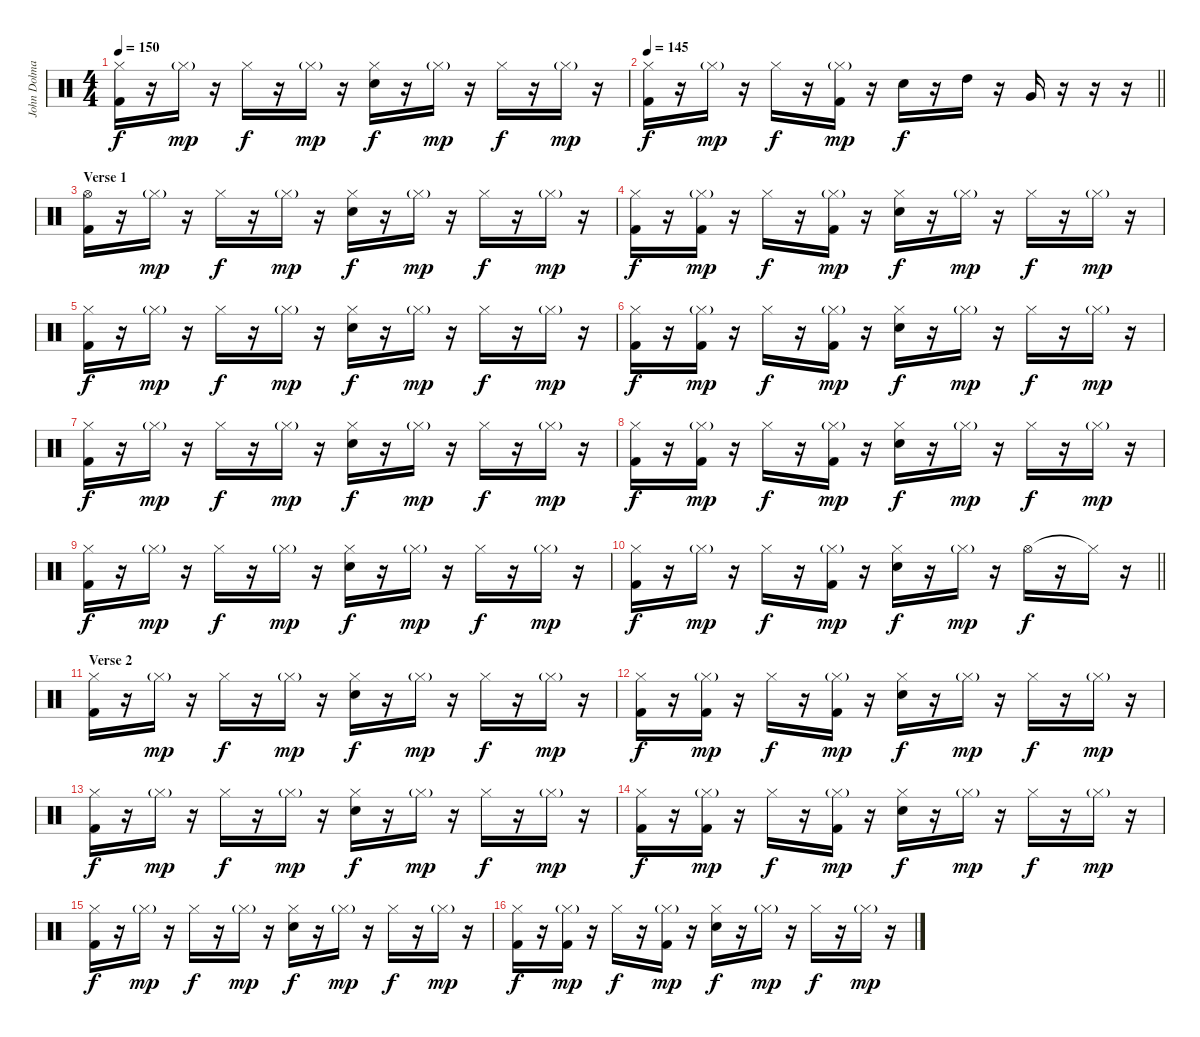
\track ("John Dolmayan" "John Dolma") {instrument percussion}
\staff {score}
\articulation defaults
\ts (4 4)
\tempo 150
\clef neutral
\ks c
("Hi-Hat (closed)" "Kick (hit) 2").16{dy f} r.16 "Hi-Hat (closed)"{g}.16{dy mp} r.16 "Hi-Hat (closed)".16{dy f} r.16 "Hi-Hat (closed)"{g}.16{dy mp} r.16 ("Hi-Hat (closed)" "Electric Snare (hit)").16{dy f} r.16 "Hi-Hat (closed)"{g}.16{dy mp} r.16 "Hi-Hat (closed)".16{dy f} r.16 "Hi-Hat (closed)"{g}.16{dy mp} r.16 |
\tempo 145
\barLineRight lightlight
("Hi-Hat (closed)" "Kick (hit) 2").16{dy f} r.16 "Hi-Hat (closed)"{g}.16{dy mp} r.16 "Hi-Hat (closed)".16{dy f} r.16 ("Hi-Hat (closed)"{g} "Kick (hit) 2").16{dy mp} r.16 "Electric Snare (hit)".16{dy f} r.16 "High Tom (hit)".16 r.16 "Very Low Tom (hit)".16 r.16 r.16 r.16 |
\section ("" "Verse 1")
("Hi-Hat (open)" "Kick (hit) 2").16 r.16 "Hi-Hat (closed)"{g}.16{dy mp} r.16 "Hi-Hat (closed)".16{dy f} r.16 "Hi-Hat (closed)"{g}.16{dy mp} r.16 ("Hi-Hat (closed)" "Electric Snare (hit)").16{dy f} r.16 "Hi-Hat (closed)"{g}.16{dy mp} r.16 "Hi-Hat (closed)".16{dy f} r.16 "Hi-Hat (closed)"{g}.16{dy mp} r.16 |
("Hi-Hat (closed)" "Kick (hit) 2").16{dy f} r.16 ("Hi-Hat (closed)"{g} "Kick (hit) 2").16{dy mp} r.16 "Hi-Hat (closed)".16{dy f} r.16 ("Hi-Hat (closed)"{g} "Kick (hit) 2").16{dy mp} r.16 ("Hi-Hat (closed)" "Electric Snare (hit)").16{dy f} r.16 "Hi-Hat (closed)"{g}.16{dy mp} r.16 "Hi-Hat (closed)".16{dy f} r.16 "Hi-Hat (closed)"{g}.16{dy mp} r.16 |
("Hi-Hat (closed)" "Kick (hit) 2").16{dy f} r.16 "Hi-Hat (closed)"{g}.16{dy mp} r.16 "Hi-Hat (closed)".16{dy f} r.16 "Hi-Hat (closed)"{g}.16{dy mp} r.16 ("Hi-Hat (closed)" "Electric Snare (hit)").16{dy f} r.16 "Hi-Hat (closed)"{g}.16{dy mp} r.16 "Hi-Hat (closed)".16{dy f} r.16 "Hi-Hat (closed)"{g}.16{dy mp} r.16 |
("Hi-Hat (closed)" "Kick (hit) 2").16{dy f} r.16 ("Hi-Hat (closed)"{g} "Kick (hit) 2").16{dy mp} r.16 "Hi-Hat (closed)".16{dy f} r.16 ("Hi-Hat (closed)"{g} "Kick (hit) 2").16{dy mp} r.16 ("Hi-Hat (closed)" "Electric Snare (hit)").16{dy f} r.16 "Hi-Hat (closed)"{g}.16{dy mp} r.16 "Hi-Hat (closed)".16{dy f} r.16 "Hi-Hat (closed)"{g}.16{dy mp} r.16 |
("Hi-Hat (closed)" "Kick (hit) 2").16{dy f} r.16 "Hi-Hat (closed)"{g}.16{dy mp} r.16 "Hi-Hat (closed)".16{dy f} r.16 "Hi-Hat (closed)"{g}.16{dy mp} r.16 ("Hi-Hat (closed)" "Electric Snare (hit)").16{dy f} r.16 "Hi-Hat (closed)"{g}.16{dy mp} r.16 "Hi-Hat (closed)".16{dy f} r.16 "Hi-Hat (closed)"{g}.16{dy mp} r.16 |
("Hi-Hat (closed)" "Kick (hit) 2").16{dy f} r.16 ("Hi-Hat (closed)"{g} "Kick (hit) 2").16{dy mp} r.16 "Hi-Hat (closed)".16{dy f} r.16 ("Hi-Hat (closed)"{g} "Kick (hit) 2").16{dy mp} r.16 ("Hi-Hat (closed)" "Electric Snare (hit)").16{dy f} r.16 "Hi-Hat (closed)"{g}.16{dy mp} r.16 "Hi-Hat (closed)".16{dy f} r.16 "Hi-Hat (closed)"{g}.16{dy mp} r.16 |
("Hi-Hat (closed)" "Kick (hit) 2").16{dy f} r.16 "Hi-Hat (closed)"{g}.16{dy mp} r.16 "Hi-Hat (closed)".16{dy f} r.16 "Hi-Hat (closed)"{g}.16{dy mp} r.16 ("Hi-Hat (closed)" "Electric Snare (hit)").16{dy f} r.16 "Hi-Hat (closed)"{g}.16{dy mp} r.16 "Hi-Hat (closed)".16{dy f} r.16 "Hi-Hat (closed)"{g}.16{dy mp} r.16 |
\barLineRight lightlight
("Hi-Hat (closed)" "Kick (hit) 2").16{dy f} r.16 "Hi-Hat (closed)"{g}.16{dy mp} r.16 "Hi-Hat (closed)".16{dy f} r.16 ("Hi-Hat (closed)"{g} "Kick (hit) 2").16{dy mp} r.16 ("Hi-Hat (closed)" "Electric Snare (hit)").16{dy f} r.16 "Hi-Hat (closed)"{g}.16{dy mp} r.16 "Hi-Hat (open)".16{dy f} r.16 "Hi-Hat (closed)"{t}.16 r.16 |
\section ("" "Verse 2")
("Hi-Hat (closed)" "Kick (hit) 2").16 r.16 "Hi-Hat (closed)"{g}.16{dy mp} r.16 "Hi-Hat (closed)".16{dy f} r.16 "Hi-Hat (closed)"{g}.16{dy mp} r.16 ("Hi-Hat (closed)" "Electric Snare (hit)").16{dy f} r.16 "Hi-Hat (closed)"{g}.16{dy mp} r.16 "Hi-Hat (closed)".16{dy f} r.16 "Hi-Hat (closed)"{g}.16{dy mp} r.16 |
("Hi-Hat (closed)" "Kick (hit) 2").16{dy f} r.16 ("Hi-Hat (closed)"{g} "Kick (hit) 2").16{dy mp} r.16 "Hi-Hat (closed)".16{dy f} r.16 ("Hi-Hat (closed)"{g} "Kick (hit) 2").16{dy mp} r.16 ("Hi-Hat (closed)" "Electric Snare (hit)").16{dy f} r.16 "Hi-Hat (closed)"{g}.16{dy mp} r.16 "Hi-Hat (closed)".16{dy f} r.16 "Hi-Hat (closed)"{g}.16{dy mp} r.16 |
("Hi-Hat (closed)" "Kick (hit) 2").16{dy f} r.16 "Hi-Hat (closed)"{g}.16{dy mp} r.16 "Hi-Hat (closed)".16{dy f} r.16 "Hi-Hat (closed)"{g}.16{dy mp} r.16 ("Hi-Hat (closed)" "Electric Snare (hit)").16{dy f} r.16 "Hi-Hat (closed)"{g}.16{dy mp} r.16 "Hi-Hat (closed)".16{dy f} r.16 "Hi-Hat (closed)"{g}.16{dy mp} r.16 |
("Hi-Hat (closed)" "Kick (hit) 2").16{dy f} r.16 ("Hi-Hat (closed)"{g} "Kick (hit) 2").16{dy mp} r.16 "Hi-Hat (closed)".16{dy f} r.16 ("Hi-Hat (closed)"{g} "Kick (hit) 2").16{dy mp} r.16 ("Hi-Hat (closed)" "Electric Snare (hit)").16{dy f} r.16 "Hi-Hat (closed)"{g}.16{dy mp} r.16 "Hi-Hat (closed)".16{dy f} r.16 "Hi-Hat (closed)"{g}.16{dy mp} r.16 |
("Hi-Hat (closed)" "Kick (hit) 2").16{dy f} r.16 "Hi-Hat (closed)"{g}.16{dy mp} r.16 "Hi-Hat (closed)".16{dy f} r.16 "Hi-Hat (closed)"{g}.16{dy mp} r.16 ("Hi-Hat (closed)" "Electric Snare (hit)").16{dy f} r.16 "Hi-Hat (closed)"{g}.16{dy mp} r.16 "Hi-Hat (closed)".16{dy f} r.16 "Hi-Hat (closed)"{g}.16{dy mp} r.16 |
("Hi-Hat (closed)" "Kick (hit) 2").16{dy f} r.16 ("Hi-Hat (closed)"{g} "Kick (hit) 2").16{dy mp} r.16 "Hi-Hat (closed)".16{dy f} r.16 ("Hi-Hat (closed)"{g} "Kick (hit) 2").16{dy mp} r.16 ("Hi-Hat (closed)" "Electric Snare (hit)").16{dy f} r.16 "Hi-Hat (closed)"{g}.16{dy mp} r.16 "Hi-Hat (closed)".16{dy f} r.16 "Hi-Hat (closed)"{g}.16{dy mp} r.16
